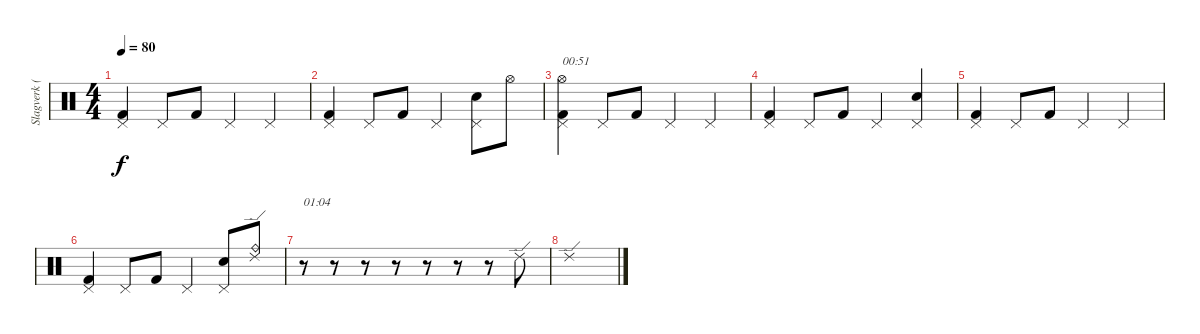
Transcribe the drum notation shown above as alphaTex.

\track ("Slagverk (99% Correct!)" "Slagverk (") {instrument percussion}
\staff {score}
\articulation defaults
\ts (4 4)
\tempo 80
\clef neutral
\ks c
("Pedal Hi-Hat (hit)" "Kick (hit) 2").4{dy f} "Pedal Hi-Hat (hit)".8 "Kick (hit) 2".8 "Pedal Hi-Hat (hit)".4 "Pedal Hi-Hat (hit)".4 |
("Pedal Hi-Hat (hit)" "Kick (hit) 2").4 "Pedal Hi-Hat (hit)".8 "Kick (hit) 2".8 "Pedal Hi-Hat (hit)".4 ("Pedal Hi-Hat (hit)" "Snare (hit) 2").8 "Hi-Hat (open)".8 |
("Pedal Hi-Hat (hit)" "Hi-Hat (open)" "Kick (hit) 2").4{txt "00:51"} "Pedal Hi-Hat (hit)".8 "Kick (hit) 2".8 "Pedal Hi-Hat (hit)".4 "Pedal Hi-Hat (hit)".4 |
("Pedal Hi-Hat (hit)" "Kick (hit) 2").4 "Pedal Hi-Hat (hit)".8 "Kick (hit) 2".8 "Pedal Hi-Hat (hit)".4 ("Pedal Hi-Hat (hit)" "Snare (hit) 2").4 |
("Pedal Hi-Hat (hit)" "Kick (hit) 2").4 "Pedal Hi-Hat (hit)".8 "Kick (hit) 2".8 "Pedal Hi-Hat (hit)".4 "Pedal Hi-Hat (hit)".4 |
("Pedal Hi-Hat (hit)" "Kick (hit) 2").4 "Pedal Hi-Hat (hit)".8 "Kick (hit) 2".8 "Pedal Hi-Hat (hit)".4 ("Pedal Hi-Hat (hit)" "Snare (hit) 2").8 ("Ride (edge) 2" "Ride (bell)").8 |
r.8{txt "01:04"} r.8 r.8 r.8 r.8 r.8 r.8 "Ride (edge) 2".8 |
"Ride (edge) 2".1
